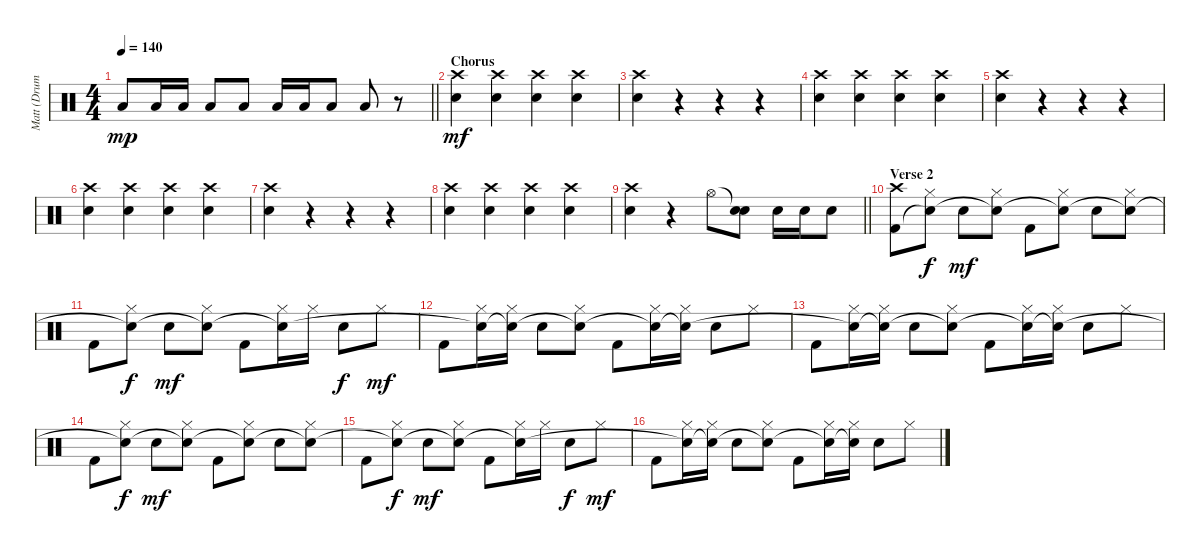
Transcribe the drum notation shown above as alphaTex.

\track ("Matt (Drums)" "Matt (Drum") {instrument percussion}
\staff {score}
\articulation defaults
\ts (4 4)
\tempo 140
\clef neutral
\barLineRight lightlight
\ks c "Low Floor Tom (hit)".8{dy mp} "Low Floor Tom (hit)".16 "Low Floor Tom (hit)".16 "Low Floor Tom (hit)".8 "Low Floor Tom (hit)".8 "Low Floor Tom (hit)".16 "Low Floor Tom (hit)".16 "Low Floor Tom (hit)".8 "Low Floor Tom (hit)".8
r.8 |
\section ("" "Chorus")
("Crash high (hit)" "Snare (hit) 2").4{dy mf} ("Crash high (hit)" "Snare (hit) 2").4 ("Crash high (hit)" "Snare (hit) 2").4 ("Crash high (hit)" "Snare (hit) 2").4 |
("Crash high (hit)" "Snare (hit) 2").4 r.4 r.4 r.4 |
("Crash high (hit)" "Snare (hit) 2").4 ("Crash high (hit)" "Snare (hit) 2").4 ("Crash high (hit)" "Snare (hit) 2").4 ("Crash high (hit)" "Snare (hit) 2").4 |
("Crash high (hit)" "Snare (hit) 2").4 r.4 r.4 r.4 |
("Crash high (hit)" "Snare (hit) 2").4 ("Crash high (hit)" "Snare (hit) 2").4 ("Crash high (hit)" "Snare (hit) 2").4 ("Crash high (hit)" "Snare (hit) 2").4 |
("Crash high (hit)" "Snare (hit) 2").4 r.4 r.4 r.4 |
("Crash high (hit)" "Snare (hit) 2").4 ("Crash high (hit)" "Snare (hit) 2").4 ("Crash high (hit)" "Snare (hit) 2").4 ("Crash high (hit)" "Snare (hit) 2").4 |
\barLineRight lightlight
("Crash high (hit)" "Snare (hit) 2").4 r.4 "Hi-Hat (open)".8 ("Snare (hit)"{t} "Snare (hit) 2").8 "Snare (hit) 2".16 "Snare (hit) 2".16 "Snare (hit) 2".8 |
\section ("" "Verse 2")
("Crash high (hit)" "Kick (hit) 2").8 ("Hi-Hat (closed)" "Snare (hit)"{t}).8{dy f} "Snare (hit) 2".8{dy mf} ("Hi-Hat (closed)" "Snare (hit)"{t}).8 "Kick (hit) 2".8 ("Hi-Hat (closed)" "Snare (hit)"{t}).8 "Snare (hit) 2".8 ("Hi-Hat (closed)" "Snare (hit)"{t}).8 |
"Kick (hit) 2".8 ("Hi-Hat (closed)" "Snare (hit)"{t}).8{dy f} "Snare (hit) 2".8{dy mf} ("Hi-Hat (closed)" "Snare (hit)"{t}).8 "Kick (hit) 2".8 ("Hi-Hat (closed)" "Snare (hit)"{t}).16 "Hi-Hat (closed)".16 "Snare (hit) 2".8{dy f} "Hi-Hat (closed)".8{dy mf} |
"Kick (hit) 2".8 ("Hi-Hat (closed)" "Snare (hit)"{t}).16 ("Hi-Hat (closed)" "Snare (hit)"{t}).16 "Snare (hit) 2".8 ("Hi-Hat (closed)" "Snare (hit)"{t}).8 "Kick (hit) 2".8 ("Hi-Hat (closed)" "Snare (hit)"{t}).16 ("Hi-Hat (closed)" "Snare (hit)"{t}).16 "Snare (hit) 2".8 "Hi-Hat (closed)".8 |
"Kick (hit) 2".8 ("Hi-Hat (closed)" "Snare (hit)"{t}).16 ("Hi-Hat (closed)" "Snare (hit)"{t}).16 "Snare (hit) 2".8 ("Hi-Hat (closed)" "Snare (hit)"{t}).8 "Kick (hit) 2".8 ("Hi-Hat (closed)" "Snare (hit)"{t}).16 ("Hi-Hat (closed)" "Snare (hit)"{t}).16 "Snare (hit) 2".8 "Hi-Hat (closed)".8 |
"Kick (hit) 2".8 ("Hi-Hat (closed)" "Snare (hit)"{t}).8{dy f} "Snare (hit) 2".8{dy mf} ("Hi-Hat (closed)" "Snare (hit)"{t}).8 "Kick (hit) 2".8 ("Hi-Hat (closed)" "Snare (hit)"{t}).8 "Snare (hit) 2".8 ("Hi-Hat (closed)" "Snare (hit)"{t}).8 |
"Kick (hit) 2".8 ("Hi-Hat (closed)" "Snare (hit)"{t}).8{dy f} "Snare (hit) 2".8{dy mf} ("Hi-Hat (closed)" "Snare (hit)"{t}).8 "Kick (hit) 2".8 ("Hi-Hat (closed)" "Snare (hit)"{t}).16 "Hi-Hat (closed)".16 "Snare (hit) 2".8{dy f} "Hi-Hat (closed)".8{dy mf} |
"Kick (hit) 2".8 ("Hi-Hat (closed)" "Snare (hit)"{t}).16 ("Hi-Hat (closed)" "Snare (hit)"{t}).16 "Snare (hit) 2".8 ("Hi-Hat (closed)" "Snare (hit)"{t}).8 "Kick (hit) 2".8 ("Hi-Hat (closed)" "Snare (hit)"{t}).16 ("Hi-Hat (closed)" "Snare (hit)"{t}).16 "Snare (hit) 2".8 "Hi-Hat (closed)".8
